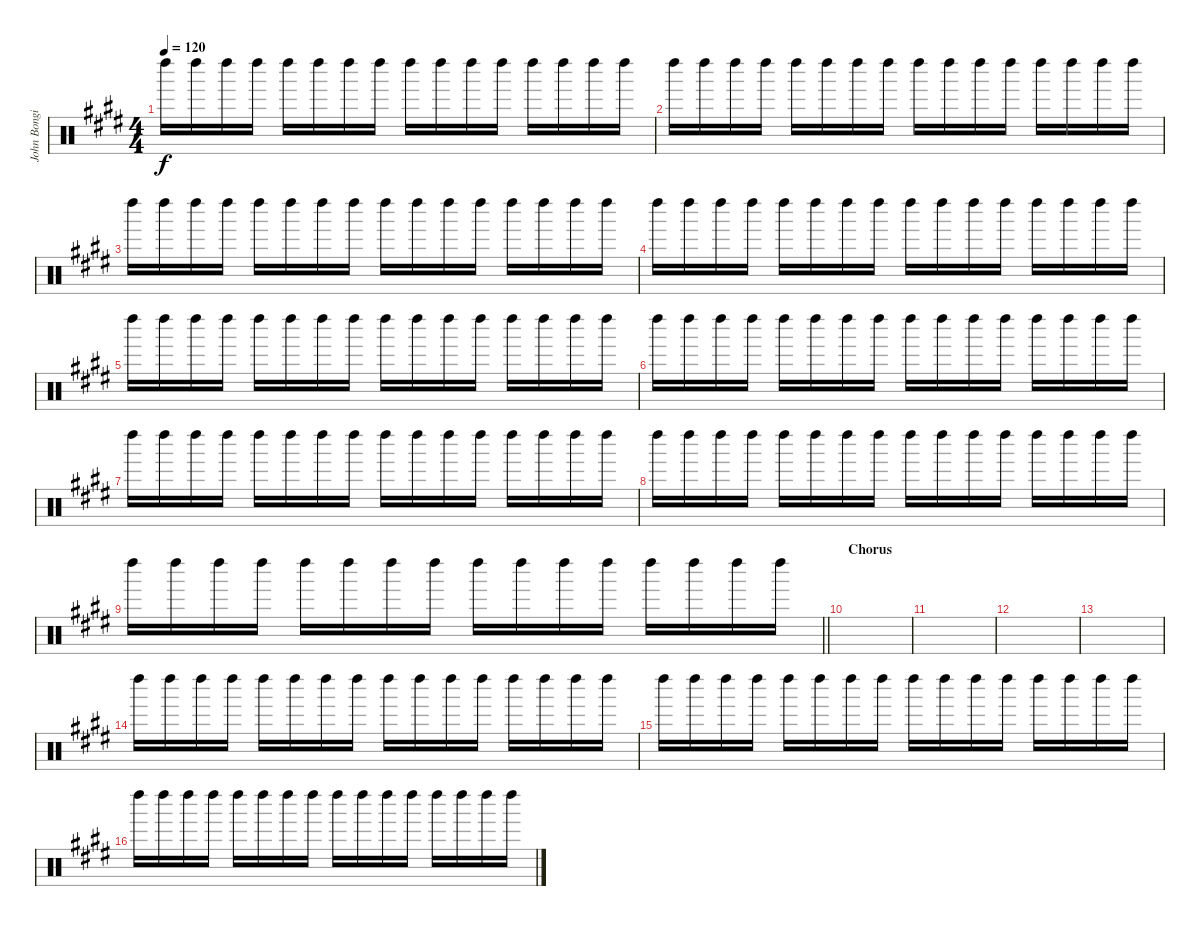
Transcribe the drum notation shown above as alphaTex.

\track ("John Bongiovi (Maracas)" "John Bongi") {instrument percussion}
\staff {score}
\articulation defaults
\ts (4 4)
\tempo 120
\clef neutral
\ks c#minor "Left Maraca (hit)".16{dy f} "Left Maraca (hit)".16 "Left Maraca (hit)".16 "Left Maraca (hit)".16 "Left Maraca (hit)".16 "Left Maraca (hit)".16 "Left Maraca (hit)".16 "Left Maraca (hit)".16 "Left Maraca (hit)".16 "Left Maraca (hit)".16 "Left Maraca (hit)".16 "Left Maraca (hit)".16 "Left Maraca (hit)".16 "Left Maraca (hit)".16 "Left Maraca (hit)".16 "Left Maraca (hit)".16
|
"Left Maraca (hit)".16 "Left Maraca (hit)".16 "Left Maraca (hit)".16 "Left Maraca (hit)".16 "Left Maraca (hit)".16 "Left Maraca (hit)".16 "Left Maraca (hit)".16 "Left Maraca (hit)".16 "Left Maraca (hit)".16 "Left Maraca (hit)".16 "Left Maraca (hit)".16 "Left Maraca (hit)".16 "Left Maraca (hit)".16 "Left Maraca (hit)".16 "Left Maraca (hit)".16 "Left Maraca (hit)".16 |
"Left Maraca (hit)".16 "Left Maraca (hit)".16 "Left Maraca (hit)".16 "Left Maraca (hit)".16 "Left Maraca (hit)".16 "Left Maraca (hit)".16 "Left Maraca (hit)".16 "Left Maraca (hit)".16 "Left Maraca (hit)".16 "Left Maraca (hit)".16 "Left Maraca (hit)".16 "Left Maraca (hit)".16 "Left Maraca (hit)".16 "Left Maraca (hit)".16 "Left Maraca (hit)".16 "Left Maraca (hit)".16 |
"Left Maraca (hit)".16 "Left Maraca (hit)".16 "Left Maraca (hit)".16 "Left Maraca (hit)".16 "Left Maraca (hit)".16 "Left Maraca (hit)".16 "Left Maraca (hit)".16 "Left Maraca (hit)".16 "Left Maraca (hit)".16 "Left Maraca (hit)".16 "Left Maraca (hit)".16 "Left Maraca (hit)".16 "Left Maraca (hit)".16 "Left Maraca (hit)".16 "Left Maraca (hit)".16 "Left Maraca (hit)".16 |
"Left Maraca (hit)".16 "Left Maraca (hit)".16 "Left Maraca (hit)".16 "Left Maraca (hit)".16 "Left Maraca (hit)".16 "Left Maraca (hit)".16 "Left Maraca (hit)".16 "Left Maraca (hit)".16 "Left Maraca (hit)".16 "Left Maraca (hit)".16 "Left Maraca (hit)".16 "Left Maraca (hit)".16 "Left Maraca (hit)".16 "Left Maraca (hit)".16 "Left Maraca (hit)".16 "Left Maraca (hit)".16 |
"Left Maraca (hit)".16 "Left Maraca (hit)".16 "Left Maraca (hit)".16 "Left Maraca (hit)".16 "Left Maraca (hit)".16 "Left Maraca (hit)".16 "Left Maraca (hit)".16 "Left Maraca (hit)".16 "Left Maraca (hit)".16 "Left Maraca (hit)".16 "Left Maraca (hit)".16 "Left Maraca (hit)".16 "Left Maraca (hit)".16 "Left Maraca (hit)".16 "Left Maraca (hit)".16 "Left Maraca (hit)".16 |
"Left Maraca (hit)".16 "Left Maraca (hit)".16 "Left Maraca (hit)".16 "Left Maraca (hit)".16 "Left Maraca (hit)".16 "Left Maraca (hit)".16 "Left Maraca (hit)".16 "Left Maraca (hit)".16 "Left Maraca (hit)".16 "Left Maraca (hit)".16 "Left Maraca (hit)".16 "Left Maraca (hit)".16 "Left Maraca (hit)".16 "Left Maraca (hit)".16 "Left Maraca (hit)".16 "Left Maraca (hit)".16 |
"Left Maraca (hit)".16 "Left Maraca (hit)".16 "Left Maraca (hit)".16 "Left Maraca (hit)".16 "Left Maraca (hit)".16 "Left Maraca (hit)".16 "Left Maraca (hit)".16 "Left Maraca (hit)".16 "Left Maraca (hit)".16 "Left Maraca (hit)".16 "Left Maraca (hit)".16 "Left Maraca (hit)".16 "Left Maraca (hit)".16 "Left Maraca (hit)".16 "Left Maraca (hit)".16 "Left Maraca (hit)".16 |
\barLineRight lightlight "Left Maraca (hit)".16 "Left Maraca (hit)".16 "Left Maraca (hit)".16 "Left Maraca (hit)".16 "Left Maraca (hit)".16 "Left Maraca (hit)".16 "Left Maraca (hit)".16 "Left Maraca (hit)".16 "Left Maraca (hit)".16 "Left Maraca (hit)".16 "Left Maraca (hit)".16 "Left Maraca (hit)".16 "Left Maraca (hit)".16 "Left Maraca (hit)".16 "Left Maraca (hit)".16 "Left Maraca (hit)".16
|
\section ("" "Chorus")
|
|
|
|
"Left Maraca (hit)".16 "Left Maraca (hit)".16 "Left Maraca (hit)".16 "Left Maraca (hit)".16 "Left Maraca (hit)".16 "Left Maraca (hit)".16 "Left Maraca (hit)".16 "Left Maraca (hit)".16 "Left Maraca (hit)".16 "Left Maraca (hit)".16 "Left Maraca (hit)".16 "Left Maraca (hit)".16 "Left Maraca (hit)".16 "Left Maraca (hit)".16 "Left Maraca (hit)".16 "Left Maraca (hit)".16 |
"Left Maraca (hit)".16 "Left Maraca (hit)".16 "Left Maraca (hit)".16 "Left Maraca (hit)".16 "Left Maraca (hit)".16 "Left Maraca (hit)".16 "Left Maraca (hit)".16 "Left Maraca (hit)".16 "Left Maraca (hit)".16 "Left Maraca (hit)".16 "Left Maraca (hit)".16 "Left Maraca (hit)".16 "Left Maraca (hit)".16 "Left Maraca (hit)".16 "Left Maraca (hit)".16 "Left Maraca (hit)".16 |
"Left Maraca (hit)".16 "Left Maraca (hit)".16 "Left Maraca (hit)".16 "Left Maraca (hit)".16 "Left Maraca (hit)".16 "Left Maraca (hit)".16 "Left Maraca (hit)".16 "Left Maraca (hit)".16 "Left Maraca (hit)".16 "Left Maraca (hit)".16 "Left Maraca (hit)".16 "Left Maraca (hit)".16 "Left Maraca (hit)".16 "Left Maraca (hit)".16 "Left Maraca (hit)".16 "Left Maraca (hit)".16
